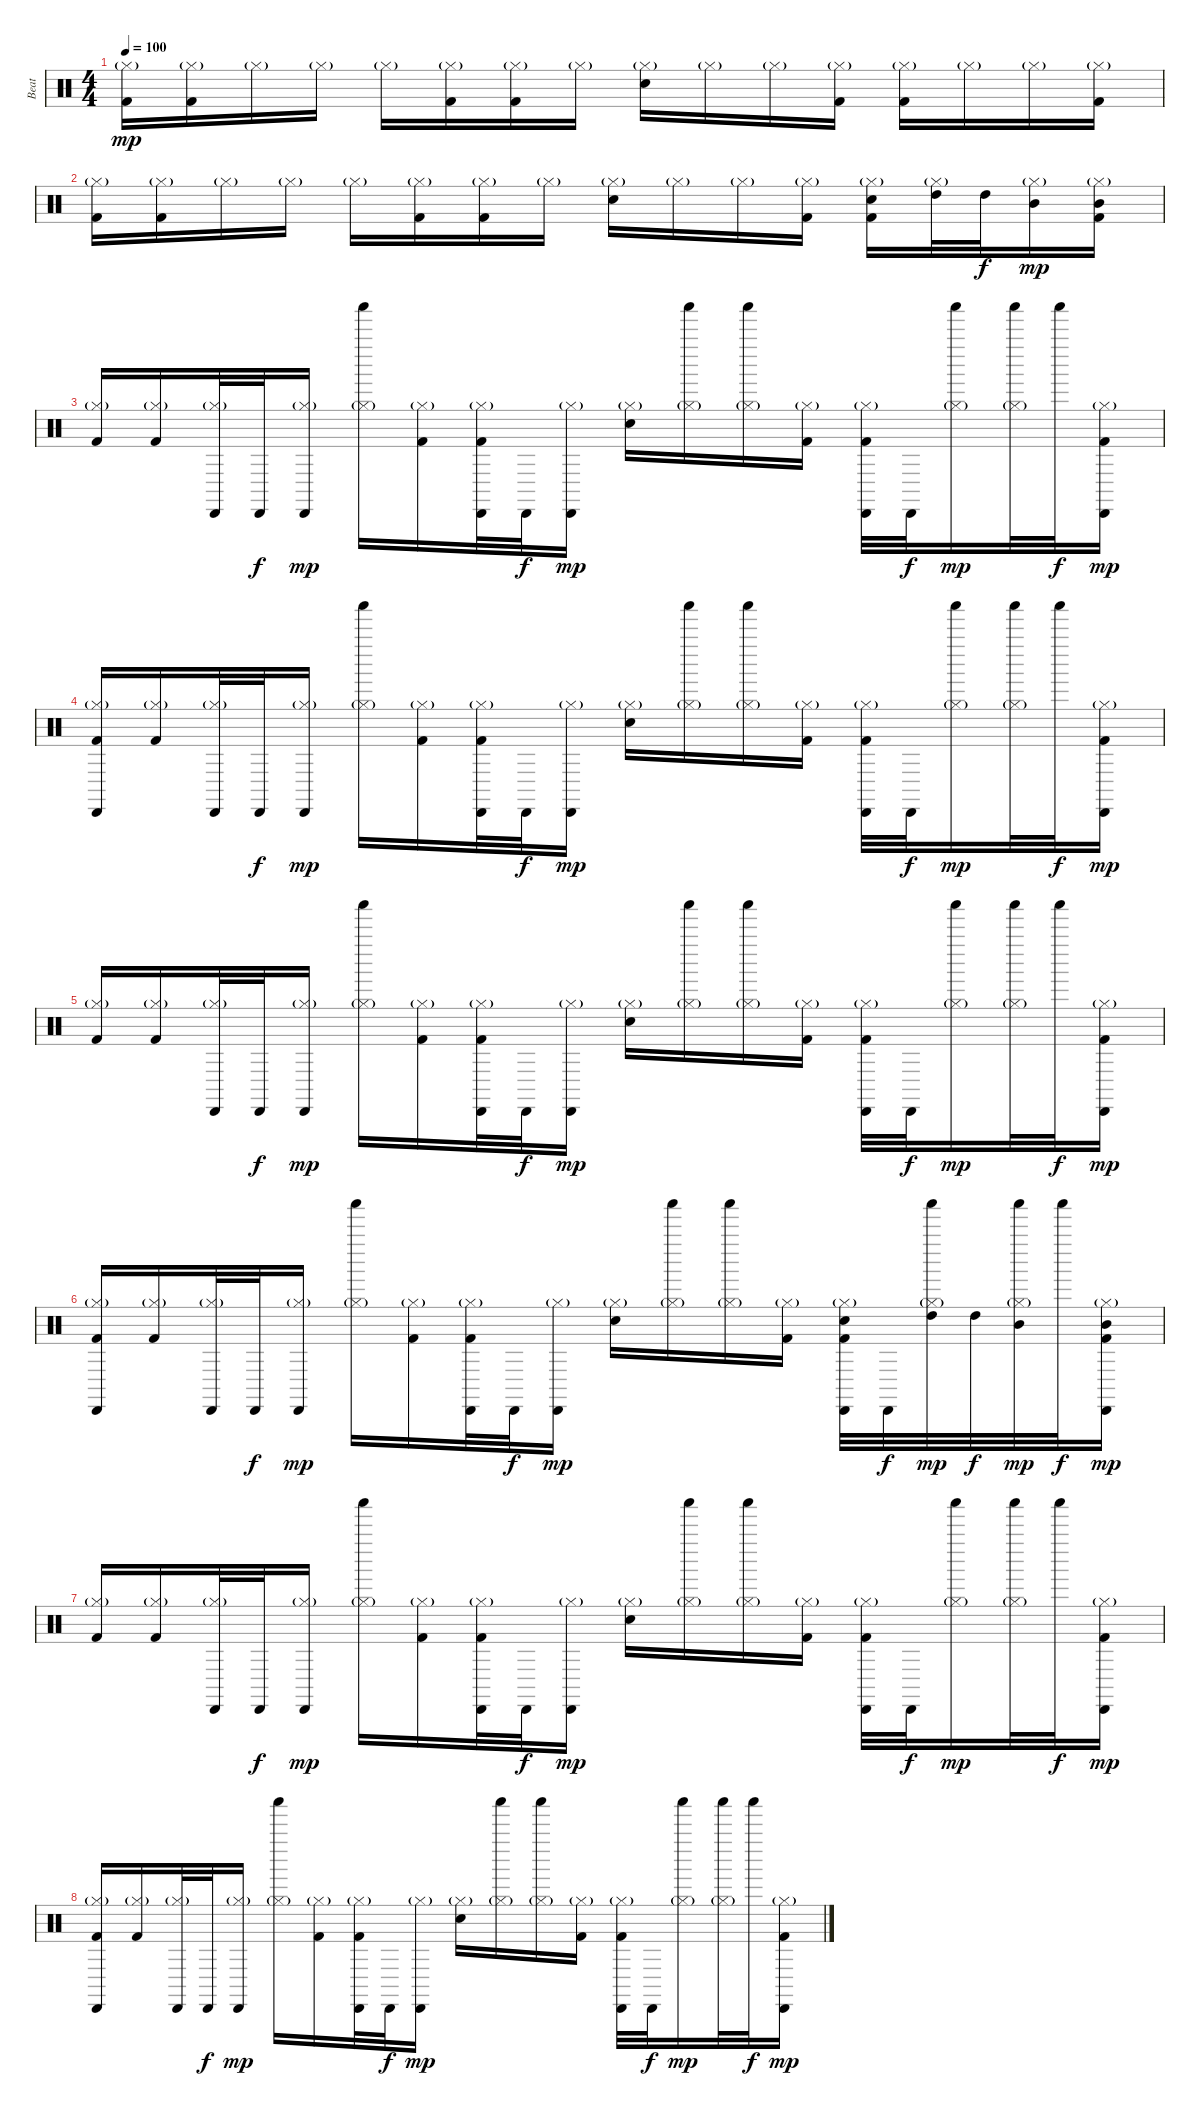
\track ("Beat" "Beat") {instrument percussion}
\staff {score}
\articulation defaults
\ts (4 4)
\tempo 100
\clef neutral
\ks c
("Hi-Hat (closed)"{g} "Kick (hit) 2").16{dy mp} ("Hi-Hat (closed)"{g} "Kick (hit) 2").16 "Hi-Hat (closed)"{g}.16 "Hi-Hat (closed)"{g}.16 "Hi-Hat (closed)"{g}.16 ("Hi-Hat (closed)"{g} "Kick (hit) 2").16 ("Hi-Hat (closed)"{g} "Kick (hit) 2").16 "Hi-Hat (closed)"{g}.16 ("Hi-Hat (closed)"{g} "Snare (hit) 2").16 "Hi-Hat (closed)"{g}.16 "Hi-Hat (closed)"{g}.16 ("Hi-Hat (closed)"{g} "Kick (hit) 2").16 ("Hi-Hat (closed)"{g} "Kick (hit) 2").16 "Hi-Hat (closed)"{g}.16 "Hi-Hat (closed)"{g}.16 ("Hi-Hat (closed)"{g} "Kick (hit) 2").16 |
("Hi-Hat (closed)"{g} "Kick (hit) 2").16 ("Hi-Hat (closed)"{g} "Kick (hit) 2").16 "Hi-Hat (closed)"{g}.16 "Hi-Hat (closed)"{g}.16 "Hi-Hat (closed)"{g}.16 ("Hi-Hat (closed)"{g} "Kick (hit) 2").16 ("Hi-Hat (closed)"{g} "Kick (hit) 2").16 "Hi-Hat (closed)"{g}.16 ("Hi-Hat (closed)"{g} "Snare (hit) 2").16 "Hi-Hat (closed)"{g}.16 "Hi-Hat (closed)"{g}.16 ("Hi-Hat (closed)"{g} "Kick (hit) 2").16 ("Hi-Hat (closed)"{g} "Snare (hit) 2" "Kick (hit) 2").16 ("Hi-Hat (closed)"{g} "High Tom (hit)").32 "High Tom (hit)".32{dy f} ("Hi-Hat (closed)"{g} "Mid Tom (hit)").16{dy mp} ("Hi-Hat (closed)"{g} "Mid Tom (hit)" "Kick (hit) 2").16 |
("Hi-Hat (closed)"{g} "Kick (hit) 2").16 ("Hi-Hat (closed)"{g} "Kick (hit) 2").16 ("Hi-Hat (closed)"{g} "Cabasa (hit)").32 "Cabasa (hit)".32{dy f} ("Hi-Hat (closed)"{g} "Cabasa (hit)").16{dy mp} ("Hi-Hat (closed)"{g} "Shaker (hit)").16 ("Hi-Hat (closed)"{g} "Kick (hit) 2").16 ("Hi-Hat (closed)"{g} "Cabasa (hit)" "Kick (hit) 2").32 "Cabasa (hit)".32{dy f} ("Hi-Hat (closed)"{g} "Cabasa (hit)").16{dy mp} ("Hi-Hat (closed)"{g} "Snare (hit) 2").16 ("Hi-Hat (closed)"{g} "Shaker (hit)").16 ("Hi-Hat (closed)"{g} "Shaker (hit)").16 ("Hi-Hat (closed)"{g} "Kick (hit) 2").16 ("Hi-Hat (closed)"{g} "Cabasa (hit)" "Kick (hit) 2").32 "Cabasa (hit)".32{dy f} ("Hi-Hat (closed)"{g} "Shaker (hit)").16{dy mp} ("Hi-Hat (closed)"{g} "Shaker (hit)").32 "Shaker (hit)".32{dy f} ("Hi-Hat (closed)"{g} "Cabasa (hit)" "Kick (hit) 2").16{dy mp} |
("Hi-Hat (closed)"{g} "Cabasa (hit)" "Kick (hit) 2").16 ("Hi-Hat (closed)"{g} "Kick (hit) 2").16 ("Hi-Hat (closed)"{g} "Cabasa (hit)").32 "Cabasa (hit)".32{dy f} ("Hi-Hat (closed)"{g} "Cabasa (hit)").16{dy mp} ("Hi-Hat (closed)"{g} "Shaker (hit)").16 ("Hi-Hat (closed)"{g} "Kick (hit) 2").16 ("Hi-Hat (closed)"{g} "Cabasa (hit)" "Kick (hit) 2").32 "Cabasa (hit)".32{dy f} ("Hi-Hat (closed)"{g} "Cabasa (hit)").16{dy mp} ("Hi-Hat (closed)"{g} "Snare (hit) 2").16 ("Hi-Hat (closed)"{g} "Shaker (hit)").16 ("Hi-Hat (closed)"{g} "Shaker (hit)").16 ("Hi-Hat (closed)"{g} "Kick (hit) 2").16 ("Hi-Hat (closed)"{g} "Cabasa (hit)" "Kick (hit) 2").32 "Cabasa (hit)".32{dy f} ("Hi-Hat (closed)"{g} "Shaker (hit)").16{dy mp} ("Hi-Hat (closed)"{g} "Shaker (hit)").32 "Shaker (hit)".32{dy f} ("Hi-Hat (closed)"{g} "Cabasa (hit)" "Kick (hit) 2").16{dy mp} |
("Hi-Hat (closed)"{g} "Kick (hit) 2").16 ("Hi-Hat (closed)"{g} "Kick (hit) 2").16 ("Hi-Hat (closed)"{g} "Cabasa (hit)").32 "Cabasa (hit)".32{dy f} ("Hi-Hat (closed)"{g} "Cabasa (hit)").16{dy mp} ("Hi-Hat (closed)"{g} "Shaker (hit)").16 ("Hi-Hat (closed)"{g} "Kick (hit) 2").16 ("Hi-Hat (closed)"{g} "Cabasa (hit)" "Kick (hit) 2").32 "Cabasa (hit)".32{dy f} ("Hi-Hat (closed)"{g} "Cabasa (hit)").16{dy mp} ("Hi-Hat (closed)"{g} "Snare (hit) 2").16 ("Hi-Hat (closed)"{g} "Shaker (hit)").16 ("Hi-Hat (closed)"{g} "Shaker (hit)").16 ("Hi-Hat (closed)"{g} "Kick (hit) 2").16 ("Hi-Hat (closed)"{g} "Cabasa (hit)" "Kick (hit) 2").32 "Cabasa (hit)".32{dy f} ("Hi-Hat (closed)"{g} "Shaker (hit)").16{dy mp} ("Hi-Hat (closed)"{g} "Shaker (hit)").32 "Shaker (hit)".32{dy f} ("Hi-Hat (closed)"{g} "Cabasa (hit)" "Kick (hit) 2").16{dy mp} |
("Hi-Hat (closed)"{g} "Cabasa (hit)" "Kick (hit) 2").16 ("Hi-Hat (closed)"{g} "Kick (hit) 2").16 ("Hi-Hat (closed)"{g} "Cabasa (hit)").32 "Cabasa (hit)".32{dy f} ("Hi-Hat (closed)"{g} "Cabasa (hit)").16{dy mp} ("Hi-Hat (closed)"{g} "Shaker (hit)").16 ("Hi-Hat (closed)"{g} "Kick (hit) 2").16 ("Hi-Hat (closed)"{g} "Cabasa (hit)" "Kick (hit) 2").32 "Cabasa (hit)".32{dy f} ("Hi-Hat (closed)"{g} "Cabasa (hit)").16{dy mp} ("Hi-Hat (closed)"{g} "Snare (hit) 2").16 ("Hi-Hat (closed)"{g} "Shaker (hit)").16 ("Hi-Hat (closed)"{g} "Shaker (hit)").16 ("Hi-Hat (closed)"{g} "Kick (hit) 2").16 ("Hi-Hat (closed)"{g} "Cabasa (hit)" "Snare (hit) 2" "Kick (hit) 2").32 "Cabasa (hit)".32{dy f} ("Hi-Hat (closed)"{g} "Shaker (hit)" "High Tom (hit)").32{dy mp} "High Tom (hit)".32{dy f} ("Hi-Hat (closed)"{g} "Shaker (hit)" "Mid Tom (hit)").32{dy mp} "Shaker (hit)".32{dy f} ("Hi-Hat (closed)"{g} "Cabasa (hit)" "Mid Tom (hit)" "Kick (hit) 2").16{dy mp} |
("Hi-Hat (closed)"{g} "Kick (hit) 2").16 ("Hi-Hat (closed)"{g} "Kick (hit) 2").16 ("Hi-Hat (closed)"{g} "Cabasa (hit)").32 "Cabasa (hit)".32{dy f} ("Hi-Hat (closed)"{g} "Cabasa (hit)").16{dy mp} ("Hi-Hat (closed)"{g} "Shaker (hit)").16 ("Hi-Hat (closed)"{g} "Kick (hit) 2").16 ("Hi-Hat (closed)"{g} "Cabasa (hit)" "Kick (hit) 2").32 "Cabasa (hit)".32{dy f} ("Hi-Hat (closed)"{g} "Cabasa (hit)").16{dy mp} ("Hi-Hat (closed)"{g} "Snare (hit) 2").16 ("Hi-Hat (closed)"{g} "Shaker (hit)").16 ("Hi-Hat (closed)"{g} "Shaker (hit)").16 ("Hi-Hat (closed)"{g} "Kick (hit) 2").16 ("Hi-Hat (closed)"{g} "Cabasa (hit)" "Kick (hit) 2").32 "Cabasa (hit)".32{dy f} ("Hi-Hat (closed)"{g} "Shaker (hit)").16{dy mp} ("Hi-Hat (closed)"{g} "Shaker (hit)").32 "Shaker (hit)".32{dy f} ("Hi-Hat (closed)"{g} "Cabasa (hit)" "Kick (hit) 2").16{dy mp} |
("Hi-Hat (closed)"{g} "Cabasa (hit)" "Kick (hit) 2").16 ("Hi-Hat (closed)"{g} "Kick (hit) 2").16 ("Hi-Hat (closed)"{g} "Cabasa (hit)").32 "Cabasa (hit)".32{dy f} ("Hi-Hat (closed)"{g} "Cabasa (hit)").16{dy mp} ("Hi-Hat (closed)"{g} "Shaker (hit)").16 ("Hi-Hat (closed)"{g} "Kick (hit) 2").16 ("Hi-Hat (closed)"{g} "Cabasa (hit)" "Kick (hit) 2").32 "Cabasa (hit)".32{dy f} ("Hi-Hat (closed)"{g} "Cabasa (hit)").16{dy mp} ("Hi-Hat (closed)"{g} "Snare (hit) 2").16 ("Hi-Hat (closed)"{g} "Shaker (hit)").16 ("Hi-Hat (closed)"{g} "Shaker (hit)").16 ("Hi-Hat (closed)"{g} "Kick (hit) 2").16 ("Hi-Hat (closed)"{g} "Cabasa (hit)" "Kick (hit) 2").32 "Cabasa (hit)".32{dy f} ("Hi-Hat (closed)"{g} "Shaker (hit)").16{dy mp} ("Hi-Hat (closed)"{g} "Shaker (hit)").32 "Shaker (hit)".32{dy f} ("Hi-Hat (closed)"{g} "Cabasa (hit)" "Kick (hit) 2").16{dy mp}
